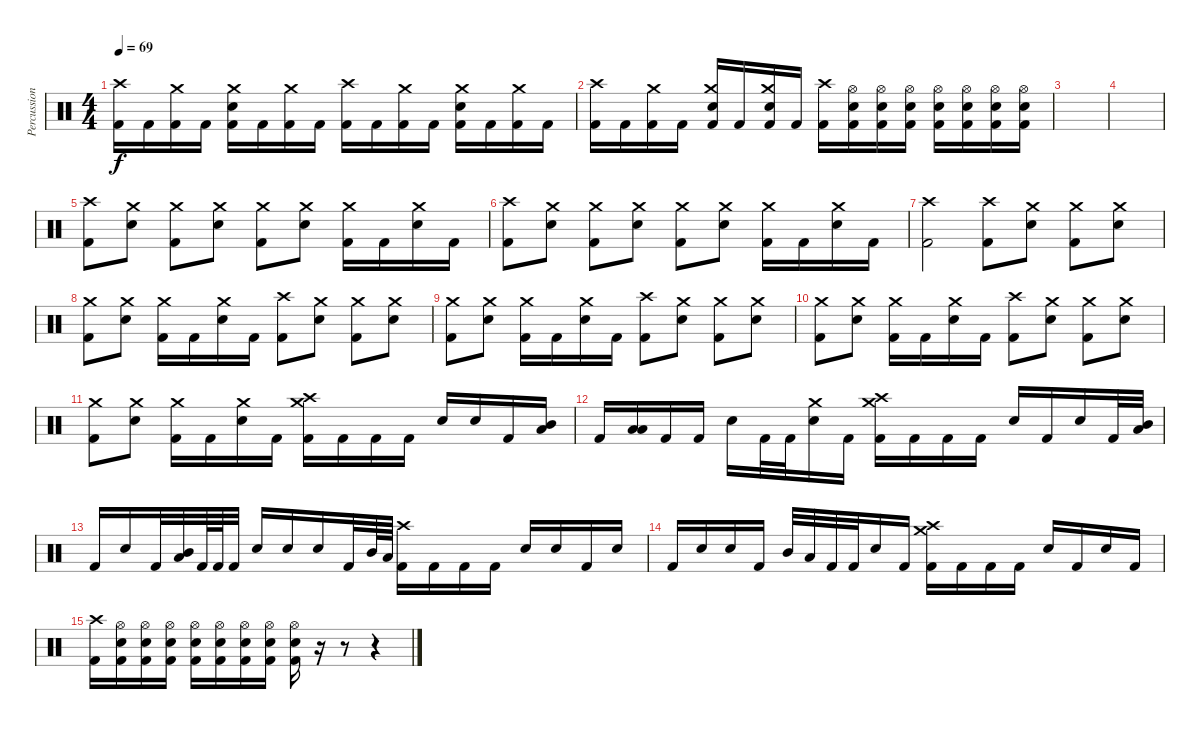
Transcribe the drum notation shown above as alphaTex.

\track ("Percussion" "Percussion") {instrument percussion}
\staff {score}
\articulation defaults
\ts (4 4)
\tempo 69
\clef neutral
\ks c
("Crash high (hit)" "Kick (hit) 2").16{dy f} "Kick (hit) 2".16 ("Crash medium (hit)" "Kick (hit) 2").16 "Kick (hit) 2".16 ("Crash medium (hit)" "Electric Snare (hit)" "Kick (hit) 2").16 "Kick (hit) 2".16 ("Crash medium (hit)" "Kick (hit) 2").16 "Kick (hit) 2".16 ("Crash high (hit)" "Kick (hit) 2").16 "Kick (hit) 2".16 ("Crash medium (hit)" "Kick (hit) 2").16 "Kick (hit) 2".16 ("Crash medium (hit)" "Electric Snare (hit)" "Kick (hit) 2").16 "Kick (hit) 2".16 ("Crash medium (hit)" "Kick (hit) 2").16 "Kick (hit) 2".16 |
("Crash high (hit)" "Kick (hit) 2").16 "Kick (hit) 2".16 ("Crash medium (hit)" "Kick (hit) 2").16 "Kick (hit) 2".16 ("Crash medium (hit)" "Electric Snare (hit)" "Kick (hit) 2").16 "Kick (hit) 2".16 ("Crash medium (hit)" "Electric Snare (hit)" "Kick (hit) 2").16 "Kick (hit) 2".16 ("Crash high (hit)" "Kick (hit) 2").16 ("Hi-Hat (open)" "Electric Snare (hit)" "Kick (hit) 2").16 ("Hi-Hat (open)" "Electric Snare (hit)" "Kick (hit) 2").16 ("Hi-Hat (open)" "Electric Snare (hit)" "Kick (hit) 2").16 ("Hi-Hat (open)" "Electric Snare (hit)" "Kick (hit) 2").16 ("Hi-Hat (open)" "Electric Snare (hit)" "Kick (hit) 2").16 ("Hi-Hat (open)" "Electric Snare (hit)" "Kick (hit) 2").16 ("Hi-Hat (open)" "Electric Snare (hit)" "Kick (hit) 2").16 |
|
|
("Crash high (hit)" "Kick (hit) 2").8 ("Crash medium (hit)" "Electric Snare (hit)").8 ("Crash medium (hit)" "Kick (hit) 2").8 ("Crash medium (hit)" "Electric Snare (hit)").8 ("Crash medium (hit)" "Kick (hit) 2").8 ("Crash medium (hit)" "Electric Snare (hit)").8 ("Crash medium (hit)" "Kick (hit) 2").16 "Kick (hit) 2".16 ("Crash medium (hit)" "Electric Snare (hit)").16 "Kick (hit) 2".16 |
("Crash high (hit)" "Kick (hit) 2").8 ("Crash medium (hit)" "Electric Snare (hit)").8 ("Crash medium (hit)" "Kick (hit) 2").8 ("Crash medium (hit)" "Electric Snare (hit)").8 ("Crash medium (hit)" "Kick (hit) 2").8 ("Crash medium (hit)" "Electric Snare (hit)").8 ("Crash medium (hit)" "Kick (hit) 2").16 "Kick (hit) 2".16 ("Crash medium (hit)" "Electric Snare (hit)").16 "Kick (hit) 2".16 |
("Crash high (hit)" "Kick (hit) 2").2 ("Crash high (hit)" "Kick (hit) 2").8 ("Crash medium (hit)" "Electric Snare (hit)").8 ("Crash medium (hit)" "Kick (hit) 2").8 ("Crash medium (hit)" "Electric Snare (hit)").8 |
("Crash medium (hit)" "Kick (hit) 2").8 ("Crash medium (hit)" "Electric Snare (hit)").8 ("Crash medium (hit)" "Kick (hit) 2").16 "Kick (hit) 2".16 ("Crash medium (hit)" "Electric Snare (hit)").16 "Kick (hit) 2".16 ("Crash high (hit)" "Kick (hit) 2").8 ("Crash medium (hit)" "Electric Snare (hit)").8 ("Crash medium (hit)" "Kick (hit) 2").8 ("Crash medium (hit)" "Electric Snare (hit)").8 |
("Crash medium (hit)" "Kick (hit) 2").8 ("Crash medium (hit)" "Electric Snare (hit)").8 ("Crash medium (hit)" "Kick (hit) 2").16 "Kick (hit) 2".16 ("Crash medium (hit)" "Electric Snare (hit)").16 "Kick (hit) 2".16 ("Crash high (hit)" "Kick (hit) 2").8 ("Crash medium (hit)" "Electric Snare (hit)").8 ("Crash medium (hit)" "Kick (hit) 2").8 ("Crash medium (hit)" "Electric Snare (hit)").8 |
("Crash medium (hit)" "Kick (hit) 2").8 ("Crash medium (hit)" "Electric Snare (hit)").8 ("Crash medium (hit)" "Kick (hit) 2").16 "Kick (hit) 2".16 ("Crash medium (hit)" "Electric Snare (hit)").16 "Kick (hit) 2".16 ("Crash high (hit)" "Kick (hit) 2").8 ("Crash medium (hit)" "Electric Snare (hit)").8 ("Crash medium (hit)" "Kick (hit) 2").8 ("Crash medium (hit)" "Electric Snare (hit)").8 |
("Crash medium (hit)" "Kick (hit) 2").8 ("Crash medium (hit)" "Electric Snare (hit)").8 ("Crash medium (hit)" "Kick (hit) 2").16 "Kick (hit) 2".16 ("Crash medium (hit)" "Electric Snare (hit)").16 "Kick (hit) 2".16 ("Crash high (hit)" "Crash medium (hit)" "Kick (hit) 2").16 "Kick (hit) 2".16 "Kick (hit) 2".16 "Kick (hit) 2".16 "Electric Snare (hit)".16 "Electric Snare (hit)".16 "Kick (hit) 2".16 ("Low Floor Tom (hit)" "Mid Tom (hit)").16 |
"Kick (hit) 2".16 ("Low Floor Tom (hit)" "Low Tom (hit)").16 "Kick (hit) 2".16 "Kick (hit) 2".16 "Electric Snare (hit)".16 "Kick (hit) 2".32 "Kick (hit) 2".32 ("Crash medium (hit)" "Electric Snare (hit)").16 "Kick (hit) 2".16 ("Crash high (hit)" "Crash medium (hit)" "Kick (hit) 2").16 "Kick (hit) 2".16 "Kick (hit) 2".16 "Kick (hit) 2".16 "Electric Snare (hit)".16 "Kick (hit) 2".16 "Electric Snare (hit)".16 "Kick (hit) 2".32 ("Low Tom (hit)" "Mid Tom (hit)").32 |
"Kick (hit) 2".16 "Electric Snare (hit)".16 "Kick (hit) 2".32 ("Low Tom (hit)" "Mid Tom (hit)").32 "Kick (hit) 2".64 "Kick (hit) 2".64 "Kick (hit) 2".32 "Electric Snare (hit)".16 "Electric Snare (hit)".16 "Electric Snare (hit)".16 "Kick (hit) 2".32 "Mid Tom (hit)".64 "Low Floor Tom (hit)".64 ("Crash high (hit)" "Kick (hit) 2").16 "Kick (hit) 2".16 "Kick (hit) 2".16 "Kick (hit) 2".16 "Electric Snare (hit)".16 "Electric Snare (hit)".16 "Kick (hit) 2".16 "Electric Snare (hit)".16 |
"Kick (hit) 2".16 "Electric Snare (hit)".16 "Electric Snare (hit)".16 "Kick (hit) 2".16 "Mid Tom (hit)".32 "Low Tom (hit)".32 "Kick (hit) 2".32 "Kick (hit) 2".32 "Electric Snare (hit)".16 "Kick (hit) 2".16 ("Crash high (hit)" "Crash medium (hit)" "Kick (hit) 2").16 "Kick (hit) 2".16 "Kick (hit) 2".16 "Kick (hit) 2".16 "Electric Snare (hit)".16 "Kick (hit) 2".16 "Electric Snare (hit)".16 "Kick (hit) 2".16 |
("Crash high (hit)" "Kick (hit) 2").16 ("Hi-Hat (open)" "Electric Snare (hit)" "Kick (hit) 2").16 ("Hi-Hat (open)" "Electric Snare (hit)" "Kick (hit) 2").16 ("Hi-Hat (open)" "Electric Snare (hit)" "Kick (hit) 2").16 ("Hi-Hat (open)" "Electric Snare (hit)" "Kick (hit) 2").16 ("Hi-Hat (open)" "Electric Snare (hit)" "Kick (hit) 2").16 ("Hi-Hat (open)" "Electric Snare (hit)" "Kick (hit) 2").16 ("Hi-Hat (open)" "Electric Snare (hit)" "Kick (hit) 2").16 ("Hi-Hat (open)" "Electric Snare (hit)" "Kick (hit) 2").16 r.16 r.8 r.4
